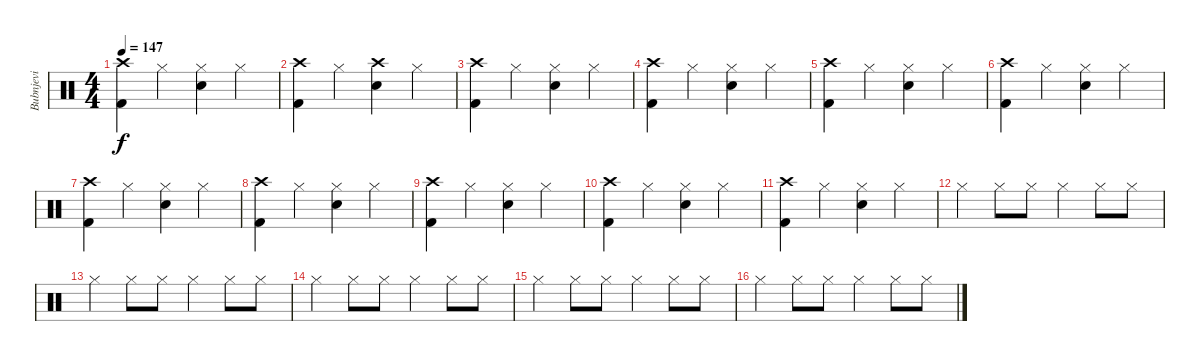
\track ("Bubnjevi" "Bubnjevi") {instrument percussion}
\staff {score}
\articulation defaults
\ts (4 4)
\tempo 147
\clef neutral
\ks c
("Crash high (hit)" "Kick (hit) 2").4{dy f} "Hi-Hat (closed)".4 ("Hi-Hat (closed)" "Electric Snare (hit)").4 "Hi-Hat (closed)".4 |
("Crash high (hit)" "Kick (hit) 2").4 "Hi-Hat (closed)".4 ("Crash high (hit)" "Electric Snare (hit)").4 "Hi-Hat (closed)".4 |
("Crash high (hit)" "Kick (hit) 2").4 "Hi-Hat (closed)".4 ("Hi-Hat (closed)" "Electric Snare (hit)").4 "Hi-Hat (closed)".4 |
("Crash high (hit)" "Kick (hit) 2").4 "Hi-Hat (closed)".4 ("Hi-Hat (closed)" "Electric Snare (hit)").4 "Hi-Hat (closed)".4 |
("Crash high (hit)" "Kick (hit) 2").4 "Hi-Hat (closed)".4 ("Hi-Hat (closed)" "Electric Snare (hit)").4 "Hi-Hat (closed)".4 |
("Crash high (hit)" "Kick (hit) 2").4 "Hi-Hat (closed)".4 ("Hi-Hat (closed)" "Electric Snare (hit)").4 "Hi-Hat (closed)".4 |
("Crash high (hit)" "Kick (hit) 2").4 "Hi-Hat (closed)".4 ("Hi-Hat (closed)" "Electric Snare (hit)").4 "Hi-Hat (closed)".4 |
("Crash high (hit)" "Kick (hit) 2").4 "Hi-Hat (closed)".4 ("Hi-Hat (closed)" "Electric Snare (hit)").4 "Hi-Hat (closed)".4 |
("Crash high (hit)" "Kick (hit) 2").4 "Hi-Hat (closed)".4 ("Hi-Hat (closed)" "Electric Snare (hit)").4 "Hi-Hat (closed)".4 |
("Crash high (hit)" "Kick (hit) 2").4 "Hi-Hat (closed)".4 ("Hi-Hat (closed)" "Electric Snare (hit)").4 "Hi-Hat (closed)".4 |
("Crash high (hit)" "Kick (hit) 2").4 "Hi-Hat (closed)".4 ("Hi-Hat (closed)" "Electric Snare (hit)").4 "Hi-Hat (closed)".4 |
"Hi-Hat (closed)".4 "Hi-Hat (closed)".8 "Hi-Hat (closed)".8 "Hi-Hat (closed)".4 "Hi-Hat (closed)".8 "Hi-Hat (closed)".8 |
"Hi-Hat (closed)".4 "Hi-Hat (closed)".8 "Hi-Hat (closed)".8 "Hi-Hat (closed)".4 "Hi-Hat (closed)".8 "Hi-Hat (closed)".8 |
"Hi-Hat (closed)".4 "Hi-Hat (closed)".8 "Hi-Hat (closed)".8 "Hi-Hat (closed)".4 "Hi-Hat (closed)".8 "Hi-Hat (closed)".8 |
"Hi-Hat (closed)".4 "Hi-Hat (closed)".8 "Hi-Hat (closed)".8 "Hi-Hat (closed)".4 "Hi-Hat (closed)".8 "Hi-Hat (closed)".8 |
"Hi-Hat (closed)".4 "Hi-Hat (closed)".8 "Hi-Hat (closed)".8 "Hi-Hat (closed)".4 "Hi-Hat (closed)".8 "Hi-Hat (closed)".8
